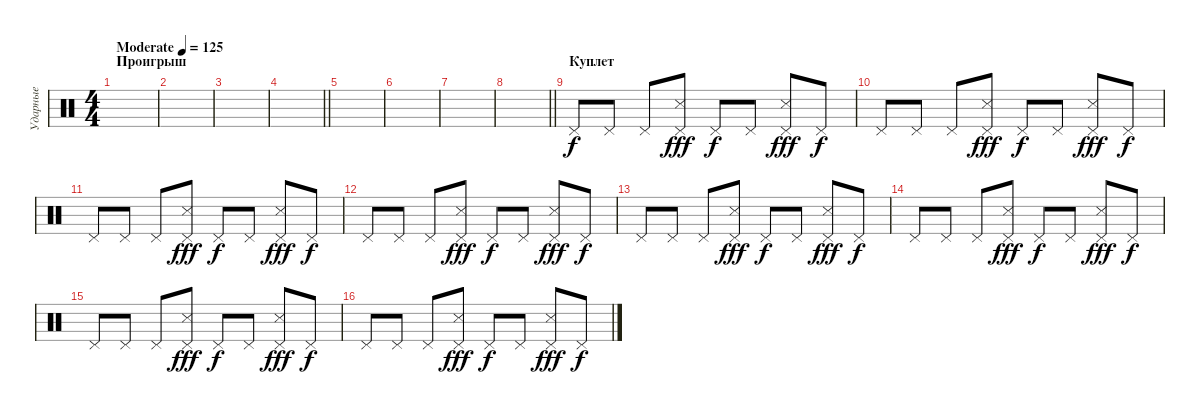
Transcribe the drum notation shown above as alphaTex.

\track ("Ударные" "Ударные") {instrument percussion}
\staff {score}
\articulation defaults
\ts (4 4)
\section ("" "Проигрыш")
\tempo (125 "Moderate")
\clef neutral
\ks c
|
|
|
\barLineRight lightlight
|
|
|
|
\barLineRight lightlight
|
\section ("" "Куплет")
"Pedal Hi-Hat (hit)".8 "Pedal Hi-Hat (hit)".8 "Pedal Hi-Hat (hit)".8 ("Pedal Hi-Hat (hit)" "Snare (side stick) 3").8{dy fff} "Pedal Hi-Hat (hit)".8{dy f} "Pedal Hi-Hat (hit)".8 ("Pedal Hi-Hat (hit)" "Snare (side stick) 3").8{dy fff} "Pedal Hi-Hat (hit)".8{dy f} |
"Pedal Hi-Hat (hit)".8 "Pedal Hi-Hat (hit)".8 "Pedal Hi-Hat (hit)".8 ("Pedal Hi-Hat (hit)" "Snare (side stick) 3").8{dy fff} "Pedal Hi-Hat (hit)".8{dy f} "Pedal Hi-Hat (hit)".8 ("Pedal Hi-Hat (hit)" "Snare (side stick) 3").8{dy fff} "Pedal Hi-Hat (hit)".8{dy f} |
"Pedal Hi-Hat (hit)".8 "Pedal Hi-Hat (hit)".8 "Pedal Hi-Hat (hit)".8 ("Pedal Hi-Hat (hit)" "Snare (side stick) 3").8{dy fff} "Pedal Hi-Hat (hit)".8{dy f} "Pedal Hi-Hat (hit)".8 ("Pedal Hi-Hat (hit)" "Snare (side stick) 3").8{dy fff} "Pedal Hi-Hat (hit)".8{dy f} |
"Pedal Hi-Hat (hit)".8 "Pedal Hi-Hat (hit)".8 "Pedal Hi-Hat (hit)".8 ("Pedal Hi-Hat (hit)" "Snare (side stick) 3").8{dy fff} "Pedal Hi-Hat (hit)".8{dy f} "Pedal Hi-Hat (hit)".8 ("Pedal Hi-Hat (hit)" "Snare (side stick) 3").8{dy fff} "Pedal Hi-Hat (hit)".8{dy f} |
"Pedal Hi-Hat (hit)".8 "Pedal Hi-Hat (hit)".8 "Pedal Hi-Hat (hit)".8 ("Pedal Hi-Hat (hit)" "Snare (side stick) 3").8{dy fff} "Pedal Hi-Hat (hit)".8{dy f} "Pedal Hi-Hat (hit)".8 ("Pedal Hi-Hat (hit)" "Snare (side stick) 3").8{dy fff} "Pedal Hi-Hat (hit)".8{dy f} |
"Pedal Hi-Hat (hit)".8 "Pedal Hi-Hat (hit)".8 "Pedal Hi-Hat (hit)".8 ("Pedal Hi-Hat (hit)" "Snare (side stick) 3").8{dy fff} "Pedal Hi-Hat (hit)".8{dy f} "Pedal Hi-Hat (hit)".8 ("Pedal Hi-Hat (hit)" "Snare (side stick) 3").8{dy fff} "Pedal Hi-Hat (hit)".8{dy f} |
"Pedal Hi-Hat (hit)".8 "Pedal Hi-Hat (hit)".8 "Pedal Hi-Hat (hit)".8 ("Pedal Hi-Hat (hit)" "Snare (side stick) 3").8{dy fff} "Pedal Hi-Hat (hit)".8{dy f} "Pedal Hi-Hat (hit)".8 ("Pedal Hi-Hat (hit)" "Snare (side stick) 3").8{dy fff} "Pedal Hi-Hat (hit)".8{dy f} |
"Pedal Hi-Hat (hit)".8 "Pedal Hi-Hat (hit)".8 "Pedal Hi-Hat (hit)".8 ("Pedal Hi-Hat (hit)" "Snare (side stick) 3").8{dy fff} "Pedal Hi-Hat (hit)".8{dy f} "Pedal Hi-Hat (hit)".8 ("Pedal Hi-Hat (hit)" "Snare (side stick) 3").8{dy fff} "Pedal Hi-Hat (hit)".8{dy f}
